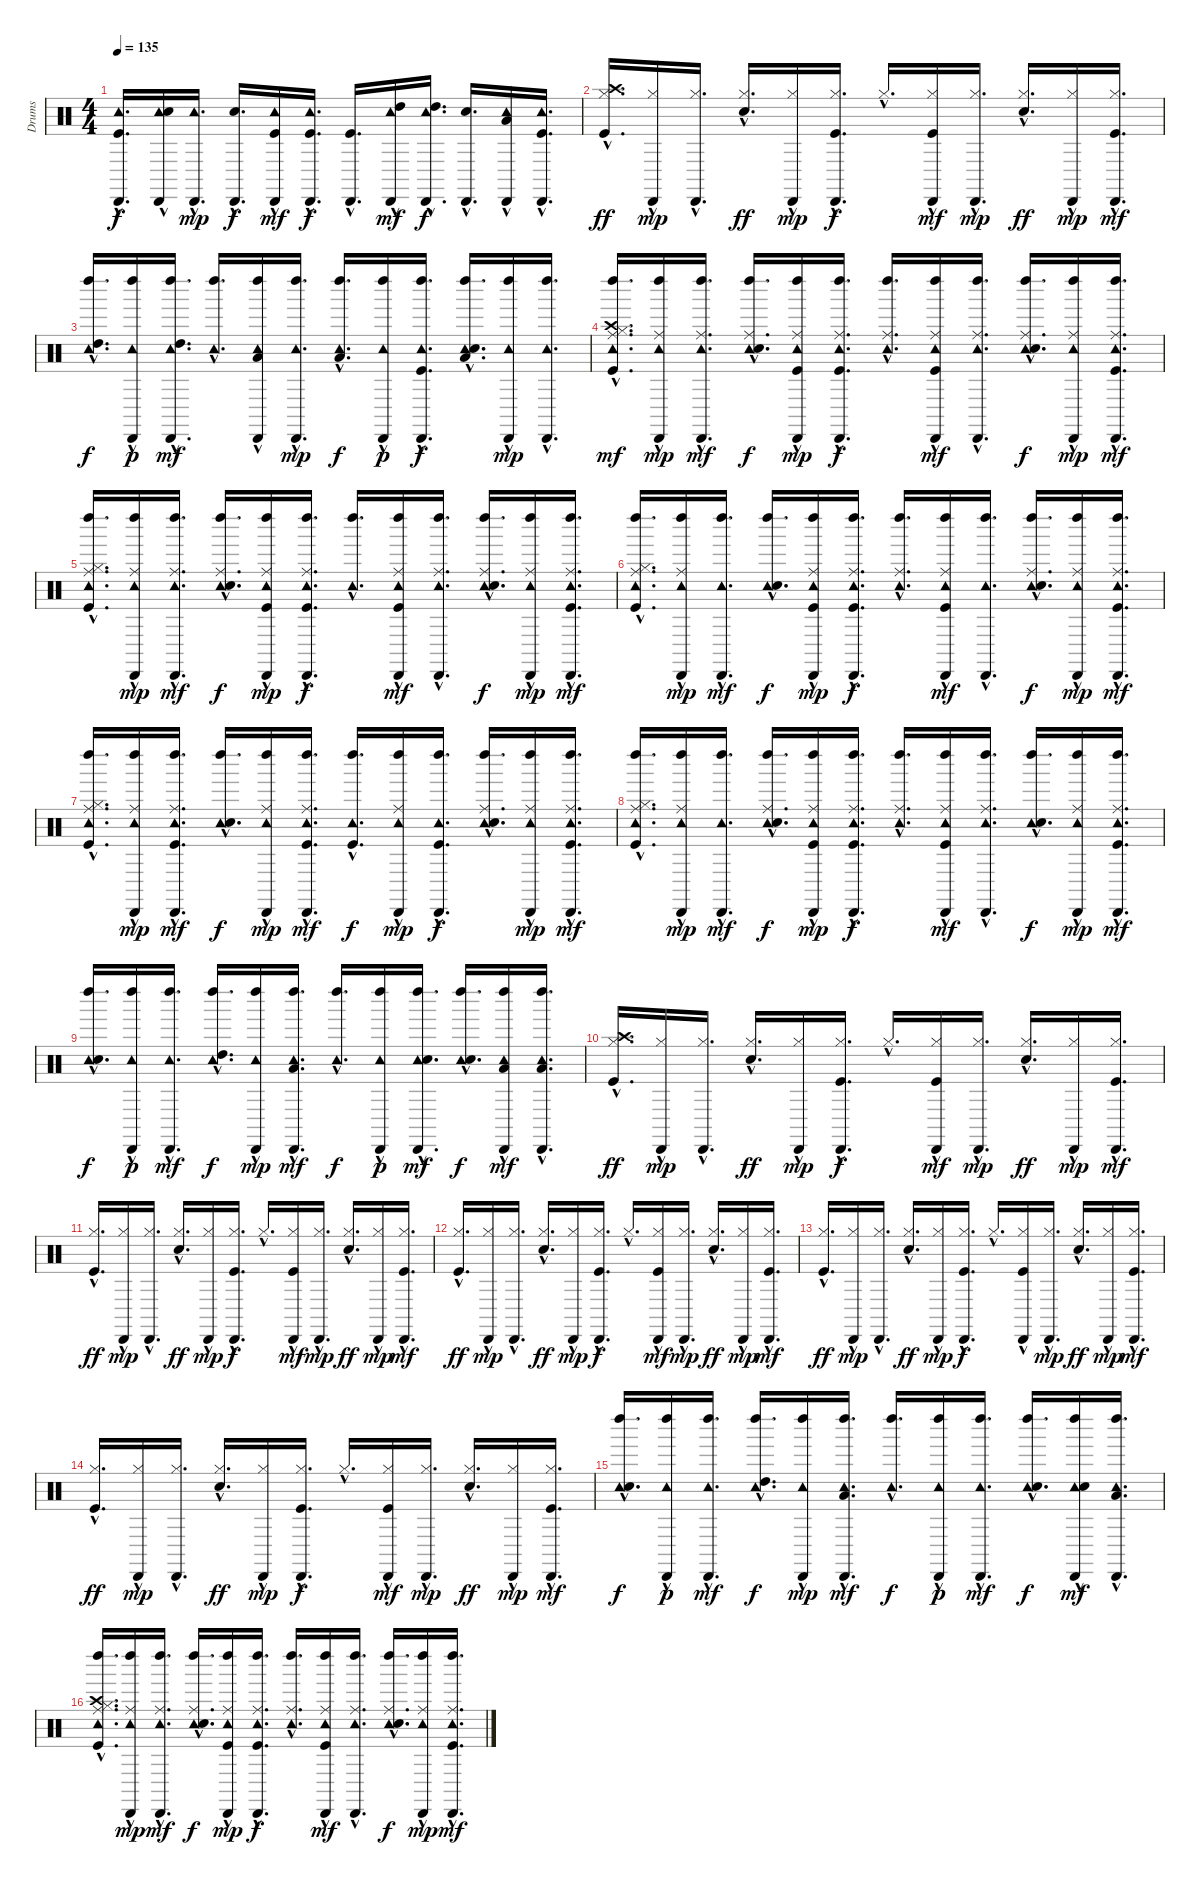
\track ("Drums" "Drums") {instrument percussion}
\staff {score}
\articulation defaults
\ts (4 4)
\tempo 135
\clef neutral
\ks c
("Cabasa (hit)"{hac} "Tambourine (hit)"{hac} "Kick (hit)"{hac}).16{d dy f} ("Cabasa (hit)"{hac} "Tambourine (hit)"{hac} "Snare (hit) 2"{hac}).16 ("Cabasa (hit)"{hac} "Tambourine (hit)"{hac}).16{d dy mp} ("Cabasa (hit)"{hac} "Snare (hit) 2"{hac}).16{d dy f} ("Cabasa (hit)"{hac} "Tambourine (hit)"{hac} "Kick (hit)"{hac}).16{dy mf} ("Cabasa (hit)"{hac} "Tambourine (hit)"{hac} "Kick (hit)"{hac}).16{d dy f} ("Cabasa (hit)"{hac} "Kick (hit)"{hac}).16{d} ("Cabasa (hit)"{hac} "Tambourine (hit)"{hac} "High Tom (hit)"{hac}).16{dy mf} ("Cabasa (hit)"{hac} "Tambourine (hit)"{hac} "High Tom (hit)"{hac}).16{d dy f} ("Cabasa (hit)"{hac} "Snare (hit) 2"{hac}).16{d} ("Cabasa (hit)"{hac} "Tambourine (hit)"{hac} "Low Tom (hit)"{hac}).16 ("Cabasa (hit)"{hac} "Tambourine (hit)"{hac} "Kick (hit)"{hac}).16{d} |
("Crash high (hit)"{hac} "Hi-Hat (closed)"{hac} "Kick (hit)"{hac}).16{d dy ff} ("Cabasa (hit)"{hac} "Hi-Hat (closed)"{hac}).16{dy mp} ("Cabasa (hit)"{hac} "Hi-Hat (closed)"{hac}).16{d} ("Hi-Hat (closed)"{hac} "Snare (hit) 2"{hac}).16{d dy ff} ("Cabasa (hit)"{hac} "Hi-Hat (closed)"{hac}).16{dy mp} ("Cabasa (hit)"{hac} "Hi-Hat (closed)"{hac} "Kick (hit)"{hac}).16{d dy f} "Hi-Hat (closed)"{hac}.16{d} ("Cabasa (hit)"{hac} "Hi-Hat (closed)"{hac} "Kick (hit)"{hac}).16{dy mf} ("Cabasa (hit)"{hac} "Hi-Hat (closed)"{hac}).16{d dy mp} ("Hi-Hat (closed)"{hac} "Snare (hit) 2"{hac}).16{d dy ff} ("Cabasa (hit)"{hac} "Hi-Hat (closed)"{hac}).16{dy mp} ("Cabasa (hit)"{hac} "Hi-Hat (closed)"{hac} "Kick (hit)"{hac}).16{d dy mf} |
("Left Maraca (hit)"{hac} "Tambourine (hit)"{hac} "High Tom (hit)"{hac}).16{d dy f} ("Left Maraca (hit)"{hac} "Cabasa (hit)"{hac} "Tambourine (hit)"{hac}).16{dy p} ("Left Maraca (hit)"{hac} "Cabasa (hit)"{hac} "Tambourine (hit)"{hac} "High Tom (hit)"{hac}).16{d dy mf} ("Left Maraca (hit)"{hac} "Tambourine (hit)"{hac}).16{d} ("Left Maraca (hit)"{hac} "Cabasa (hit)"{hac} "Tambourine (hit)"{hac} "Low Tom (hit)"{hac}).16 ("Left Maraca (hit)"{hac} "Cabasa (hit)"{hac} "Tambourine (hit)"{hac}).16{d dy mp} ("Left Maraca (hit)"{hac} "Tambourine (hit)"{hac} "Low Tom (hit)"{hac}).16{d dy f} ("Left Maraca (hit)"{hac} "Cabasa (hit)"{hac} "Tambourine (hit)"{hac}).16{dy p} ("Left Maraca (hit)"{hac} "Cabasa (hit)"{hac} "Tambourine (hit)"{hac} "Kick (hit)"{hac}).16{d dy f} ("Left Maraca (hit)"{hac} "Tambourine (hit)"{hac} "Low Floor Tom (hit)"{hac} "Snare (hit) 2"{hac}).16{d} ("Left Maraca (hit)"{hac} "Cabasa (hit)"{hac} "Tambourine (hit)"{hac}).16{dy mp} ("Left Maraca (hit)"{hac} "Cabasa (hit)"{hac} "Tambourine (hit)"{hac}).16{d} |
("Left Maraca (hit)"{hac} "Tambourine (hit)"{hac} "Ride (middle)"{hac} "Crash high (hit)"{hac} "Hi-Hat (closed)"{hac} "Kick (hit)"{hac}).16{d dy mf} ("Left Maraca (hit)"{hac} "Cabasa (hit)"{hac} "Tambourine (hit)"{hac} "Ride (middle)"{hac}).16{dy mp} ("Left Maraca (hit)"{hac} "Cabasa (hit)"{hac} "Tambourine (hit)"{hac} "Ride (middle)"{hac}).16{d dy mf} ("Left Maraca (hit)"{hac} "Tambourine (hit)"{hac} "Ride (middle)"{hac} "Snare (hit) 2"{hac}).16{d dy f} ("Left Maraca (hit)"{hac} "Cabasa (hit)"{hac} "Tambourine (hit)"{hac} "Ride (middle)"{hac} "Kick (hit)"{hac}).16{dy mp} ("Left Maraca (hit)"{hac} "Cabasa (hit)"{hac} "Tambourine (hit)"{hac} "Ride (middle)"{hac} "Kick (hit)"{hac}).16{d dy f} ("Left Maraca (hit)"{hac} "Tambourine (hit)"{hac} "Ride (middle)"{hac}).16{d} ("Left Maraca (hit)"{hac} "Cabasa (hit)"{hac} "Tambourine (hit)"{hac} "Ride (middle)"{hac} "Kick (hit)"{hac}).16{dy mf} ("Left Maraca (hit)"{hac} "Cabasa (hit)"{hac} "Tambourine (hit)"{hac} "Ride (middle)"{hac}).16{d} ("Left Maraca (hit)"{hac} "Tambourine (hit)"{hac} "Ride (middle)"{hac} "Snare (hit) 2"{hac}).16{d dy f} ("Left Maraca (hit)"{hac} "Cabasa (hit)"{hac} "Tambourine (hit)"{hac} "Ride (middle)"{hac}).16{dy mp} ("Left Maraca (hit)"{hac} "Cabasa (hit)"{hac} "Tambourine (hit)"{hac} "Ride (middle)"{hac} "Kick (hit)"{hac}).16{d dy mf} |
("Left Maraca (hit)"{hac} "Tambourine (hit)"{hac} "Ride (middle)"{hac} "Hi-Hat (closed)"{hac} "Kick (hit)"{hac}).16{d} ("Left Maraca (hit)"{hac} "Cabasa (hit)"{hac} "Tambourine (hit)"{hac} "Ride (middle)"{hac}).16{dy mp} ("Left Maraca (hit)"{hac} "Cabasa (hit)"{hac} "Tambourine (hit)"{hac} "Ride (middle)"{hac}).16{d dy mf} ("Left Maraca (hit)"{hac} "Tambourine (hit)"{hac} "Ride (middle)"{hac} "Snare (hit) 2"{hac}).16{d dy f} ("Left Maraca (hit)"{hac} "Cabasa (hit)"{hac} "Tambourine (hit)"{hac} "Ride (middle)"{hac} "Kick (hit)"{hac}).16{dy mp} ("Left Maraca (hit)"{hac} "Cabasa (hit)"{hac} "Tambourine (hit)"{hac} "Ride (middle)"{hac} "Kick (hit)"{hac}).16{d dy f} ("Left Maraca (hit)"{hac} "Tambourine (hit)"{hac}).16{d} ("Left Maraca (hit)"{hac} "Cabasa (hit)"{hac} "Tambourine (hit)"{hac} "Ride (middle)"{hac} "Kick (hit)"{hac}).16{dy mf} ("Left Maraca (hit)"{hac} "Cabasa (hit)"{hac} "Tambourine (hit)"{hac} "Ride (middle)"{hac}).16{d} ("Left Maraca (hit)"{hac} "Tambourine (hit)"{hac} "Ride (middle)"{hac} "Snare (hit) 2"{hac}).16{d dy f} ("Left Maraca (hit)"{hac} "Cabasa (hit)"{hac} "Tambourine (hit)"{hac} "Ride (middle)"{hac}).16{dy mp} ("Left Maraca (hit)"{hac} "Cabasa (hit)"{hac} "Tambourine (hit)"{hac} "Ride (middle)"{hac} "Kick (hit)"{hac}).16{d dy mf} |
("Left Maraca (hit)"{hac} "Tambourine (hit)"{hac} "Ride (middle)"{hac} "Hi-Hat (closed)"{hac} "Kick (hit)"{hac}).16{d} ("Left Maraca (hit)"{hac} "Cabasa (hit)"{hac} "Tambourine (hit)"{hac} "Ride (middle)"{hac}).16{dy mp} ("Left Maraca (hit)"{hac} "Cabasa (hit)"{hac} "Tambourine (hit)"{hac}).16{d dy mf} ("Left Maraca (hit)"{hac} "Tambourine (hit)"{hac} "Snare (hit) 2"{hac}).16{d dy f} ("Left Maraca (hit)"{hac} "Cabasa (hit)"{hac} "Tambourine (hit)"{hac} "Ride (middle)"{hac} "Kick (hit)"{hac}).16{dy mp} ("Left Maraca (hit)"{hac} "Cabasa (hit)"{hac} "Tambourine (hit)"{hac} "Ride (middle)"{hac} "Kick (hit)"{hac}).16{d dy f} ("Left Maraca (hit)"{hac} "Tambourine (hit)"{hac} "Ride (middle)"{hac}).16{d} ("Left Maraca (hit)"{hac} "Cabasa (hit)"{hac} "Tambourine (hit)"{hac} "Ride (middle)"{hac} "Kick (hit)"{hac}).16{dy mf} ("Left Maraca (hit)"{hac} "Cabasa (hit)"{hac} "Tambourine (hit)"{hac}).16{d} ("Left Maraca (hit)"{hac} "Tambourine (hit)"{hac} "Ride (middle)"{hac} "Snare (hit) 2"{hac}).16{d dy f} ("Left Maraca (hit)"{hac} "Cabasa (hit)"{hac} "Tambourine (hit)"{hac} "Ride (middle)"{hac}).16{dy mp} ("Left Maraca (hit)"{hac} "Cabasa (hit)"{hac} "Tambourine (hit)"{hac} "Ride (middle)"{hac} "Kick (hit)"{hac}).16{d dy mf} |
("Left Maraca (hit)"{hac} "Tambourine (hit)"{hac} "Ride (middle)"{hac} "Hi-Hat (closed)"{hac} "Kick (hit)"{hac}).16{d} ("Left Maraca (hit)"{hac} "Cabasa (hit)"{hac} "Tambourine (hit)"{hac} "Ride (middle)"{hac}).16{dy mp} ("Left Maraca (hit)"{hac} "Cabasa (hit)"{hac} "Tambourine (hit)"{hac} "Ride (middle)"{hac} "Kick (hit)"{hac}).16{d dy mf} ("Left Maraca (hit)"{hac} "Tambourine (hit)"{hac} "Snare (hit) 2"{hac}).16{d dy f} ("Left Maraca (hit)"{hac} "Cabasa (hit)"{hac} "Tambourine (hit)"{hac} "Ride (middle)"{hac}).16{dy mp} ("Left Maraca (hit)"{hac} "Cabasa (hit)"{hac} "Tambourine (hit)"{hac} "Ride (middle)"{hac} "Kick (hit)"{hac}).16{d dy mf} ("Left Maraca (hit)"{hac} "Tambourine (hit)"{hac} "Kick (hit)"{hac}).16{d dy f} ("Left Maraca (hit)"{hac} "Cabasa (hit)"{hac} "Tambourine (hit)"{hac} "Ride (middle)"{hac}).16{dy mp} ("Left Maraca (hit)"{hac} "Cabasa (hit)"{hac} "Tambourine (hit)"{hac} "Kick (hit)"{hac}).16{d dy f} ("Left Maraca (hit)"{hac} "Tambourine (hit)"{hac} "Ride (middle)"{hac} "Snare (hit) 2"{hac}).16{d} ("Left Maraca (hit)"{hac} "Cabasa (hit)"{hac} "Tambourine (hit)"{hac} "Ride (middle)"{hac}).16{dy mp} ("Left Maraca (hit)"{hac} "Cabasa (hit)"{hac} "Tambourine (hit)"{hac} "Ride (middle)"{hac} "Kick (hit)"{hac}).16{d dy mf} |
("Left Maraca (hit)"{hac} "Tambourine (hit)"{hac} "Ride (middle)"{hac} "Hi-Hat (closed)"{hac} "Kick (hit)"{hac}).16{d} ("Left Maraca (hit)"{hac} "Cabasa (hit)"{hac} "Tambourine (hit)"{hac} "Ride (middle)"{hac}).16{dy mp} ("Left Maraca (hit)"{hac} "Cabasa (hit)"{hac} "Tambourine (hit)"{hac}).16{d dy mf} ("Left Maraca (hit)"{hac} "Tambourine (hit)"{hac} "Ride (middle)"{hac} "Snare (hit) 2"{hac}).16{d dy f} ("Left Maraca (hit)"{hac} "Cabasa (hit)"{hac} "Tambourine (hit)"{hac} "Ride (middle)"{hac} "Kick (hit)"{hac}).16{dy mp} ("Left Maraca (hit)"{hac} "Cabasa (hit)"{hac} "Tambourine (hit)"{hac} "Ride (middle)"{hac} "Kick (hit)"{hac}).16{d dy f} ("Left Maraca (hit)"{hac} "Tambourine (hit)"{hac} "Ride (middle)"{hac}).16{d} ("Left Maraca (hit)"{hac} "Cabasa (hit)"{hac} "Tambourine (hit)"{hac} "Ride (middle)"{hac} "Kick (hit)"{hac}).16{dy mf} ("Left Maraca (hit)"{hac} "Cabasa (hit)"{hac} "Tambourine (hit)"{hac} "Ride (middle)"{hac}).16{d} ("Left Maraca (hit)"{hac} "Tambourine (hit)"{hac} "Snare (hit) 2"{hac}).16{d dy f} ("Left Maraca (hit)"{hac} "Cabasa (hit)"{hac} "Tambourine (hit)"{hac} "Ride (middle)"{hac}).16{dy mp} ("Left Maraca (hit)"{hac} "Cabasa (hit)"{hac} "Tambourine (hit)"{hac} "Ride (middle)"{hac} "Kick (hit)"{hac}).16{d dy mf} |
("Left Maraca (hit)"{hac} "Tambourine (hit)"{hac} "Snare (hit) 2"{hac}).16{d dy f} ("Left Maraca (hit)"{hac} "Cabasa (hit)"{hac} "Tambourine (hit)"{hac}).16{dy p} ("Left Maraca (hit)"{hac} "Cabasa (hit)"{hac} "Tambourine (hit)"{hac}).16{d dy mf} ("Left Maraca (hit)"{hac} "Tambourine (hit)"{hac} "High Tom (hit)"{hac}).16{d dy f} ("Left Maraca (hit)"{hac} "Cabasa (hit)"{hac} "Tambourine (hit)"{hac}).16{dy mp} ("Left Maraca (hit)"{hac} "Cabasa (hit)"{hac} "Tambourine (hit)"{hac} "Low Tom (hit)"{hac}).16{d dy mf} ("Left Maraca (hit)"{hac} "Tambourine (hit)"{hac}).16{d dy f} ("Left Maraca (hit)"{hac} "Cabasa (hit)"{hac} "Tambourine (hit)"{hac}).16{dy p} ("Left Maraca (hit)"{hac} "Cabasa (hit)"{hac} "Tambourine (hit)"{hac} "Snare (hit) 2"{hac}).16{d dy mf} ("Left Maraca (hit)"{hac} "Tambourine (hit)"{hac} "Snare (hit) 2"{hac}).16{d dy f} ("Left Maraca (hit)"{hac} "Cabasa (hit)"{hac} "Tambourine (hit)"{hac} "Low Floor Tom (hit)"{hac}).16{dy mf} ("Left Maraca (hit)"{hac} "Cabasa (hit)"{hac} "Tambourine (hit)"{hac} "Low Floor Tom (hit)"{hac}).16{d} |
("Crash high (hit)"{hac} "Hi-Hat (closed)"{hac} "Kick (hit)"{hac}).16{d dy ff} ("Cabasa (hit)"{hac} "Hi-Hat (closed)"{hac}).16{dy mp} ("Cabasa (hit)"{hac} "Hi-Hat (closed)"{hac}).16{d} ("Hi-Hat (closed)"{hac} "Snare (hit) 2"{hac}).16{d dy ff} ("Cabasa (hit)"{hac} "Hi-Hat (closed)"{hac}).16{dy mp} ("Cabasa (hit)"{hac} "Hi-Hat (closed)"{hac} "Kick (hit)"{hac}).16{d dy f} "Hi-Hat (closed)"{hac}.16{d} ("Cabasa (hit)"{hac} "Hi-Hat (closed)"{hac} "Kick (hit)"{hac}).16{dy mf} ("Cabasa (hit)"{hac} "Hi-Hat (closed)"{hac}).16{d dy mp} ("Hi-Hat (closed)"{hac} "Snare (hit) 2"{hac}).16{d dy ff} ("Cabasa (hit)"{hac} "Hi-Hat (closed)"{hac}).16{dy mp} ("Cabasa (hit)"{hac} "Hi-Hat (closed)"{hac} "Kick (hit)"{hac}).16{d dy mf} |
("Hi-Hat (closed)"{hac} "Kick (hit)"{hac}).16{d dy ff} ("Cabasa (hit)"{hac} "Hi-Hat (closed)"{hac}).16{dy mp} ("Cabasa (hit)"{hac} "Hi-Hat (closed)"{hac}).16{d} ("Hi-Hat (closed)"{hac} "Snare (hit) 2"{hac}).16{d dy ff} ("Cabasa (hit)"{hac} "Hi-Hat (closed)"{hac}).16{dy mp} ("Cabasa (hit)"{hac} "Hi-Hat (closed)"{hac} "Kick (hit)"{hac}).16{d dy f} "Hi-Hat (closed)"{hac}.16{d} ("Cabasa (hit)"{hac} "Hi-Hat (closed)"{hac} "Kick (hit)"{hac}).16{dy mf} ("Cabasa (hit)"{hac} "Hi-Hat (closed)"{hac}).16{d dy mp} ("Hi-Hat (closed)"{hac} "Snare (hit) 2"{hac}).16{d dy ff} ("Cabasa (hit)"{hac} "Hi-Hat (closed)"{hac}).16{dy mp} ("Cabasa (hit)"{hac} "Hi-Hat (closed)"{hac} "Kick (hit)"{hac}).16{d dy mf} |
("Hi-Hat (closed)"{hac} "Kick (hit)"{hac}).16{d dy ff} ("Cabasa (hit)"{hac} "Hi-Hat (closed)"{hac}).16{dy mp} ("Cabasa (hit)"{hac} "Hi-Hat (closed)"{hac}).16{d} ("Hi-Hat (closed)"{hac} "Snare (hit) 2"{hac}).16{d dy ff} ("Cabasa (hit)"{hac} "Hi-Hat (closed)"{hac}).16{dy mp} ("Cabasa (hit)"{hac} "Hi-Hat (closed)"{hac} "Kick (hit)"{hac}).16{d dy f} "Hi-Hat (closed)"{hac}.16{d} ("Cabasa (hit)"{hac} "Hi-Hat (closed)"{hac} "Kick (hit)"{hac}).16{dy mf} ("Cabasa (hit)"{hac} "Hi-Hat (closed)"{hac}).16{d dy mp} ("Hi-Hat (closed)"{hac} "Snare (hit) 2"{hac}).16{d dy ff} ("Cabasa (hit)"{hac} "Hi-Hat (closed)"{hac}).16{dy mp} ("Cabasa (hit)"{hac} "Hi-Hat (closed)"{hac} "Kick (hit)"{hac}).16{d dy mf} |
("Hi-Hat (closed)"{hac} "Kick (hit)"{hac}).16{d dy ff} ("Cabasa (hit)"{hac} "Hi-Hat (closed)"{hac}).16{dy mp} ("Cabasa (hit)"{hac} "Hi-Hat (closed)"{hac}).16{d} ("Hi-Hat (closed)"{hac} "Snare (hit) 2"{hac}).16{d dy ff} ("Cabasa (hit)"{hac} "Hi-Hat (closed)"{hac}).16{dy mp} ("Cabasa (hit)"{hac} "Hi-Hat (closed)"{hac} "Kick (hit)"{hac}).16{d dy f} "Hi-Hat (closed)"{hac}.16{d} ("Cabasa (hit)"{hac} "Hi-Hat (closed)"{hac} "Kick (hit)"{hac}).16 ("Cabasa (hit)"{hac} "Hi-Hat (closed)"{hac}).16{d dy mp} ("Hi-Hat (closed)"{hac} "Snare (hit) 2"{hac}).16{d dy ff} ("Cabasa (hit)"{hac} "Hi-Hat (closed)"{hac}).16{dy mp} ("Cabasa (hit)"{hac} "Hi-Hat (closed)"{hac} "Kick (hit)"{hac}).16{d dy mf} |
("Hi-Hat (closed)"{hac} "Kick (hit)"{hac}).16{d dy ff} ("Cabasa (hit)"{hac} "Hi-Hat (closed)"{hac}).16{dy mp} ("Cabasa (hit)"{hac} "Hi-Hat (closed)"{hac}).16{d} ("Hi-Hat (closed)"{hac} "Snare (hit) 2"{hac}).16{d dy ff} ("Cabasa (hit)"{hac} "Hi-Hat (closed)"{hac}).16{dy mp} ("Cabasa (hit)"{hac} "Hi-Hat (closed)"{hac} "Kick (hit)"{hac}).16{d dy f} "Hi-Hat (closed)"{hac}.16{d} ("Cabasa (hit)"{hac} "Hi-Hat (closed)"{hac} "Kick (hit)"{hac}).16{dy mf} ("Cabasa (hit)"{hac} "Hi-Hat (closed)"{hac}).16{d dy mp} ("Hi-Hat (closed)"{hac} "Snare (hit) 2"{hac}).16{d dy ff} ("Cabasa (hit)"{hac} "Hi-Hat (closed)"{hac}).16{dy mp} ("Cabasa (hit)"{hac} "Hi-Hat (closed)"{hac} "Kick (hit)"{hac}).16{d dy mf} |
("Left Maraca (hit)"{hac} "Tambourine (hit)"{hac} "Snare (hit) 2"{hac}).16{d dy f} ("Left Maraca (hit)"{hac} "Cabasa (hit)"{hac} "Tambourine (hit)"{hac}).16{dy p} ("Left Maraca (hit)"{hac} "Cabasa (hit)"{hac} "Tambourine (hit)"{hac}).16{d dy mf} ("Left Maraca (hit)"{hac} "Tambourine (hit)"{hac} "High Tom (hit)"{hac}).16{d dy f} ("Left Maraca (hit)"{hac} "Cabasa (hit)"{hac} "Tambourine (hit)"{hac}).16{dy mp} ("Left Maraca (hit)"{hac} "Cabasa (hit)"{hac} "Tambourine (hit)"{hac} "Low Tom (hit)"{hac}).16{d dy mf} ("Left Maraca (hit)"{hac} "Tambourine (hit)"{hac}).16{d dy f} ("Left Maraca (hit)"{hac} "Cabasa (hit)"{hac} "Tambourine (hit)"{hac}).16{dy p} ("Left Maraca (hit)"{hac} "Cabasa (hit)"{hac} "Tambourine (hit)"{hac}).16{d dy mf} ("Left Maraca (hit)"{hac} "Tambourine (hit)"{hac} "Snare (hit) 2"{hac}).16{d dy f} ("Left Maraca (hit)"{hac} "Cabasa (hit)"{hac} "Tambourine (hit)"{hac} "Snare (hit) 2"{hac}).16{dy mf} ("Left Maraca (hit)"{hac} "Cabasa (hit)"{hac} "Tambourine (hit)"{hac} "Low Floor Tom (hit)"{hac}).16{d} |
("Left Maraca (hit)"{hac} "Tambourine (hit)"{hac} "Ride (middle)"{hac} "Crash high (hit)"{hac} "Hi-Hat (closed)"{hac} "Kick (hit)"{hac}).16{d} ("Left Maraca (hit)"{hac} "Cabasa (hit)"{hac} "Tambourine (hit)"{hac} "Ride (middle)"{hac}).16{dy mp} ("Left Maraca (hit)"{hac} "Cabasa (hit)"{hac} "Tambourine (hit)"{hac} "Ride (middle)"{hac}).16{d dy mf} ("Left Maraca (hit)"{hac} "Tambourine (hit)"{hac} "Ride (middle)"{hac} "Snare (hit) 2"{hac}).16{d dy f} ("Left Maraca (hit)"{hac} "Cabasa (hit)"{hac} "Tambourine (hit)"{hac} "Ride (middle)"{hac} "Kick (hit)"{hac}).16{dy mp} ("Left Maraca (hit)"{hac} "Cabasa (hit)"{hac} "Tambourine (hit)"{hac} "Ride (middle)"{hac} "Kick (hit)"{hac}).16{d dy f} ("Left Maraca (hit)"{hac} "Tambourine (hit)"{hac} "Ride (middle)"{hac}).16{d} ("Left Maraca (hit)"{hac} "Cabasa (hit)"{hac} "Tambourine (hit)"{hac} "Ride (middle)"{hac} "Kick (hit)"{hac}).16{dy mf} ("Left Maraca (hit)"{hac} "Cabasa (hit)"{hac} "Tambourine (hit)"{hac} "Ride (middle)"{hac}).16{d} ("Left Maraca (hit)"{hac} "Tambourine (hit)"{hac} "Ride (middle)"{hac} "Snare (hit) 2"{hac}).16{d dy f} ("Left Maraca (hit)"{hac} "Cabasa (hit)"{hac} "Tambourine (hit)"{hac} "Ride (middle)"{hac}).16{dy mp} ("Left Maraca (hit)"{hac} "Cabasa (hit)"{hac} "Tambourine (hit)"{hac} "Ride (middle)"{hac} "Kick (hit)"{hac}).16{d dy mf}
